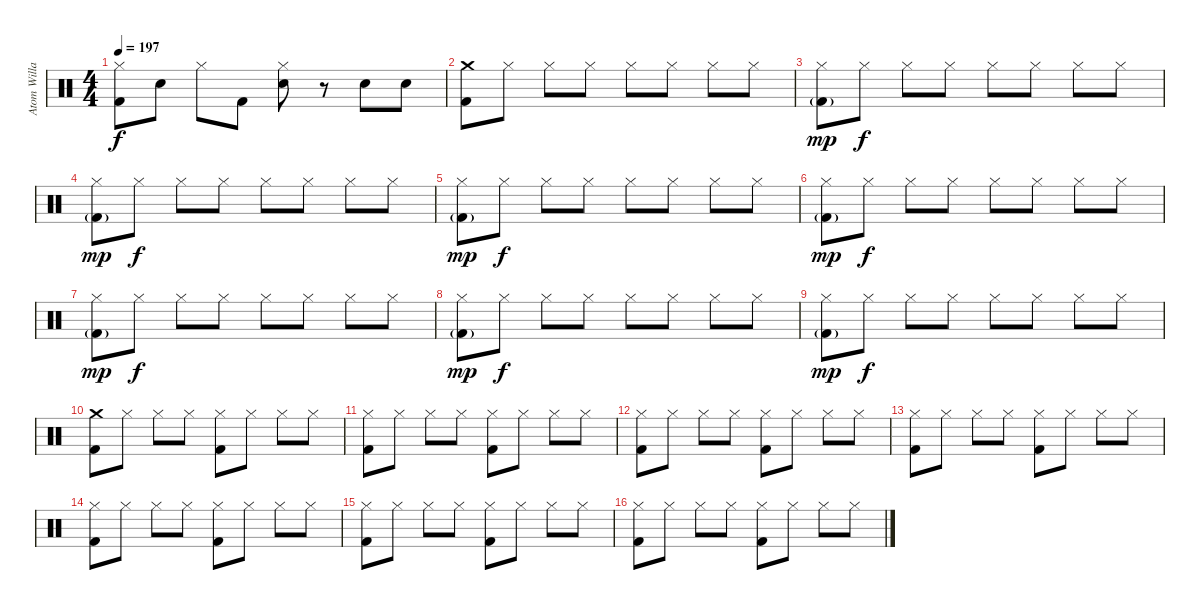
\track ("Atom Willard Drums" "Atom Willa") {instrument percussion}
\staff {score}
\articulation defaults
\ts (4 4)
\tempo 197
\clef neutral
\ks c
("Hi-Hat (closed)" "Kick (hit) 2").8{dy f} "Electric Snare (hit)".8 "Hi-Hat (closed)".8 "Kick (hit) 2".8 ("Hi-Hat (closed)" "Electric Snare (hit)").8 r.8 "Electric Snare (hit)".8 "Electric Snare (hit)".8 |
("Crash medium (hit)" "Kick (hit) 2").8 "Hi-Hat (closed)".8 "Hi-Hat (closed)".8 "Hi-Hat (closed)".8 "Hi-Hat (closed)".8 "Hi-Hat (closed)".8 "Hi-Hat (closed)".8 "Hi-Hat (closed)".8 |
("Hi-Hat (closed)" "Kick (hit) 2"{g}).8{dy mp} "Hi-Hat (closed)".8{dy f} "Hi-Hat (closed)".8 "Hi-Hat (closed)".8 "Hi-Hat (closed)".8 "Hi-Hat (closed)".8 "Hi-Hat (closed)".8 "Hi-Hat (closed)".8 |
("Hi-Hat (closed)" "Kick (hit) 2"{g}).8{dy mp} "Hi-Hat (closed)".8{dy f} "Hi-Hat (closed)".8 "Hi-Hat (closed)".8 "Hi-Hat (closed)".8 "Hi-Hat (closed)".8 "Hi-Hat (closed)".8 "Hi-Hat (closed)".8 |
("Hi-Hat (closed)" "Kick (hit) 2"{g}).8{dy mp} "Hi-Hat (closed)".8{dy f} "Hi-Hat (closed)".8 "Hi-Hat (closed)".8 "Hi-Hat (closed)".8 "Hi-Hat (closed)".8 "Hi-Hat (closed)".8 "Hi-Hat (closed)".8 |
("Hi-Hat (closed)" "Kick (hit) 2"{g}).8{dy mp} "Hi-Hat (closed)".8{dy f} "Hi-Hat (closed)".8 "Hi-Hat (closed)".8 "Hi-Hat (closed)".8 "Hi-Hat (closed)".8 "Hi-Hat (closed)".8 "Hi-Hat (closed)".8 |
("Hi-Hat (closed)" "Kick (hit) 2"{g}).8{dy mp} "Hi-Hat (closed)".8{dy f} "Hi-Hat (closed)".8 "Hi-Hat (closed)".8 "Hi-Hat (closed)".8 "Hi-Hat (closed)".8 "Hi-Hat (closed)".8 "Hi-Hat (closed)".8 |
("Hi-Hat (closed)" "Kick (hit) 2"{g}).8{dy mp} "Hi-Hat (closed)".8{dy f} "Hi-Hat (closed)".8 "Hi-Hat (closed)".8 "Hi-Hat (closed)".8 "Hi-Hat (closed)".8 "Hi-Hat (closed)".8 "Hi-Hat (closed)".8 |
("Hi-Hat (closed)" "Kick (hit) 2"{g}).8{dy mp} "Hi-Hat (closed)".8{dy f} "Hi-Hat (closed)".8 "Hi-Hat (closed)".8 "Hi-Hat (closed)".8 "Hi-Hat (closed)".8 "Hi-Hat (closed)".8 "Hi-Hat (closed)".8 |
("Crash medium (hit)" "Kick (hit) 2").8 "Hi-Hat (closed)".8 "Hi-Hat (closed)".8 "Hi-Hat (closed)".8 ("Hi-Hat (closed)" "Kick (hit) 2").8 "Hi-Hat (closed)".8 "Hi-Hat (closed)".8 "Hi-Hat (closed)".8 |
("Hi-Hat (closed)" "Kick (hit) 2").8 "Hi-Hat (closed)".8 "Hi-Hat (closed)".8 "Hi-Hat (closed)".8 ("Hi-Hat (closed)" "Kick (hit) 2").8 "Hi-Hat (closed)".8 "Hi-Hat (closed)".8 "Hi-Hat (closed)".8 |
("Hi-Hat (closed)" "Kick (hit) 2").8 "Hi-Hat (closed)".8 "Hi-Hat (closed)".8 "Hi-Hat (closed)".8 ("Hi-Hat (closed)" "Kick (hit) 2").8 "Hi-Hat (closed)".8 "Hi-Hat (closed)".8 "Hi-Hat (closed)".8 |
("Hi-Hat (closed)" "Kick (hit) 2").8 "Hi-Hat (closed)".8 "Hi-Hat (closed)".8 "Hi-Hat (closed)".8 ("Hi-Hat (closed)" "Kick (hit) 2").8 "Hi-Hat (closed)".8 "Hi-Hat (closed)".8 "Hi-Hat (closed)".8 |
("Hi-Hat (closed)" "Kick (hit) 2").8 "Hi-Hat (closed)".8 "Hi-Hat (closed)".8 "Hi-Hat (closed)".8 ("Hi-Hat (closed)" "Kick (hit) 2").8 "Hi-Hat (closed)".8 "Hi-Hat (closed)".8 "Hi-Hat (closed)".8 |
("Hi-Hat (closed)" "Kick (hit) 2").8 "Hi-Hat (closed)".8 "Hi-Hat (closed)".8 "Hi-Hat (closed)".8 ("Hi-Hat (closed)" "Kick (hit) 2").8 "Hi-Hat (closed)".8 "Hi-Hat (closed)".8 "Hi-Hat (closed)".8 |
("Hi-Hat (closed)" "Kick (hit) 2").8 "Hi-Hat (closed)".8 "Hi-Hat (closed)".8 "Hi-Hat (closed)".8 ("Hi-Hat (closed)" "Kick (hit) 2").8 "Hi-Hat (closed)".8 "Hi-Hat (closed)".8 "Hi-Hat (closed)".8
